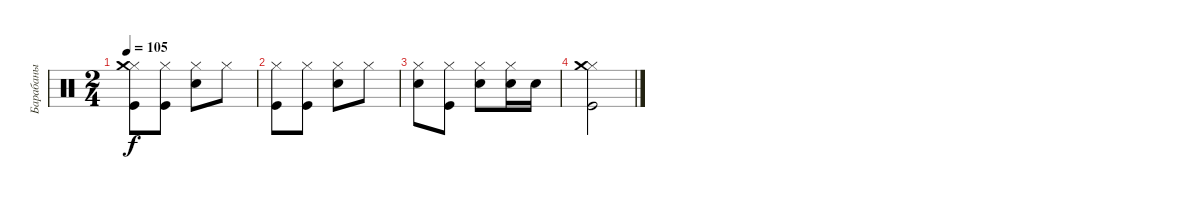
\track ("Барабаны" "Барабаны") {instrument percussion}
\staff {score}
\articulation defaults
\ts (2 4)
\tempo 105
\clef neutral
\ks c
("Kick (hit)" "Hi-Hat (closed)" "Crash medium (hit)").8{dy f} ("Kick (hit)" "Hi-Hat (closed)").8 ("Snare (hit) 2" "Hi-Hat (closed)").8 "Hi-Hat (closed)".8 |
("Kick (hit)" "Hi-Hat (closed)").8 ("Kick (hit)" "Hi-Hat (closed)").8 ("Snare (hit) 2" "Hi-Hat (closed)").8 "Hi-Hat (closed)".8 |
("Snare (hit) 2" "Hi-Hat (closed)").8 ("Kick (hit)" "Hi-Hat (closed)").8 ("Snare (hit) 2" "Hi-Hat (closed)").8 ("Snare (hit) 2" "Hi-Hat (closed)").16 "Snare (hit) 2".16 |
("Kick (hit)" "Hi-Hat (closed)" "Crash medium (hit)").2
